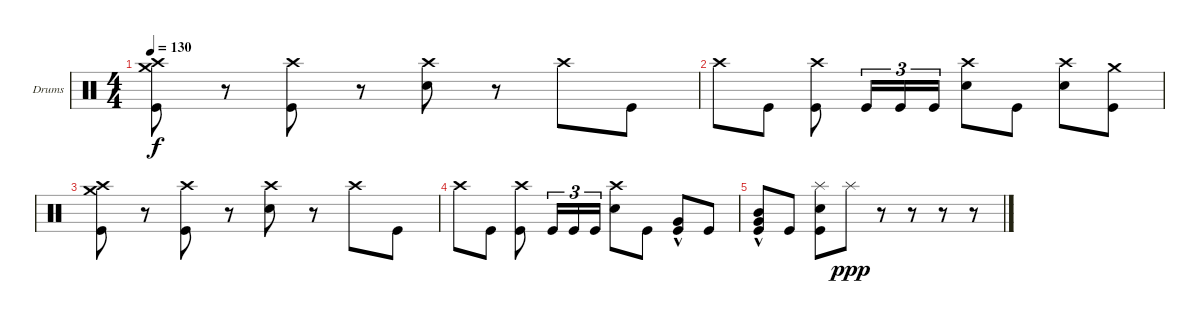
\bracketExtendMode groupsimilarinstruments
\firstSystemTrackNameOrientation horizontal
\otherSystemsTrackNameOrientation horizontal
\track ("Drumkit" "Drums") {instrument percussion}
\staff {score}
\articulation defaults
\ts (4 4)
\tempo 130
\clef neutral
\ks c
("Kick (hit)" "Crash high (hit)" "Crash medium (hit)").8{dy f} r.8 ("Kick (hit)" "Crash high (hit)").8 r.8 ("Snare (hit) 2" "Crash high (hit)").8 r.8 "Crash high (hit)".8 "Kick (hit)".8 |
"Crash high (hit)".8 "Kick (hit)".8 ("Kick (hit)" "Crash high (hit)").8 "Kick (hit)".16{tu (3 2)} "Kick (hit)".16{tu (3 2)} "Kick (hit)".16{tu (3 2)} ("Snare (hit) 2" "Crash high (hit)").8 "Kick (hit)".8 ("Snare (hit) 2" "Crash high (hit)").8 ("Kick (hit)" "Crash medium (hit)").8 |
("Kick (hit)" "Crash high (hit)" "Crash medium (hit)").8 r.8 ("Kick (hit)" "Crash high (hit)").8 r.8 ("Snare (hit) 2" "Crash high (hit)").8 r.8 "Crash high (hit)".8 "Kick (hit)".8 |
"Crash high (hit)".8 "Kick (hit)".8 ("Kick (hit)" "Crash high (hit)").8 "Kick (hit)".16{tu (3 2)} "Kick (hit)".16{tu (3 2)} "Kick (hit)".16{tu (3 2)} ("Snare (hit) 2" "Crash high (hit)").8 "Kick (hit)".8 ("Very Low Tom (hit)"{hac} "Kick (hit)").8 "Kick (hit)".8 |
("Mid Tom (hit)"{hac} "Very Low Tom (hit)"{hac} "Kick (hit)").8 "Kick (hit)".8 ("Kick (hit)" "Snare (hit) 2" "Splash (hit)").8 "Splash (hit)".8{dy ppp} r.8 r.8 r.8 r.8
